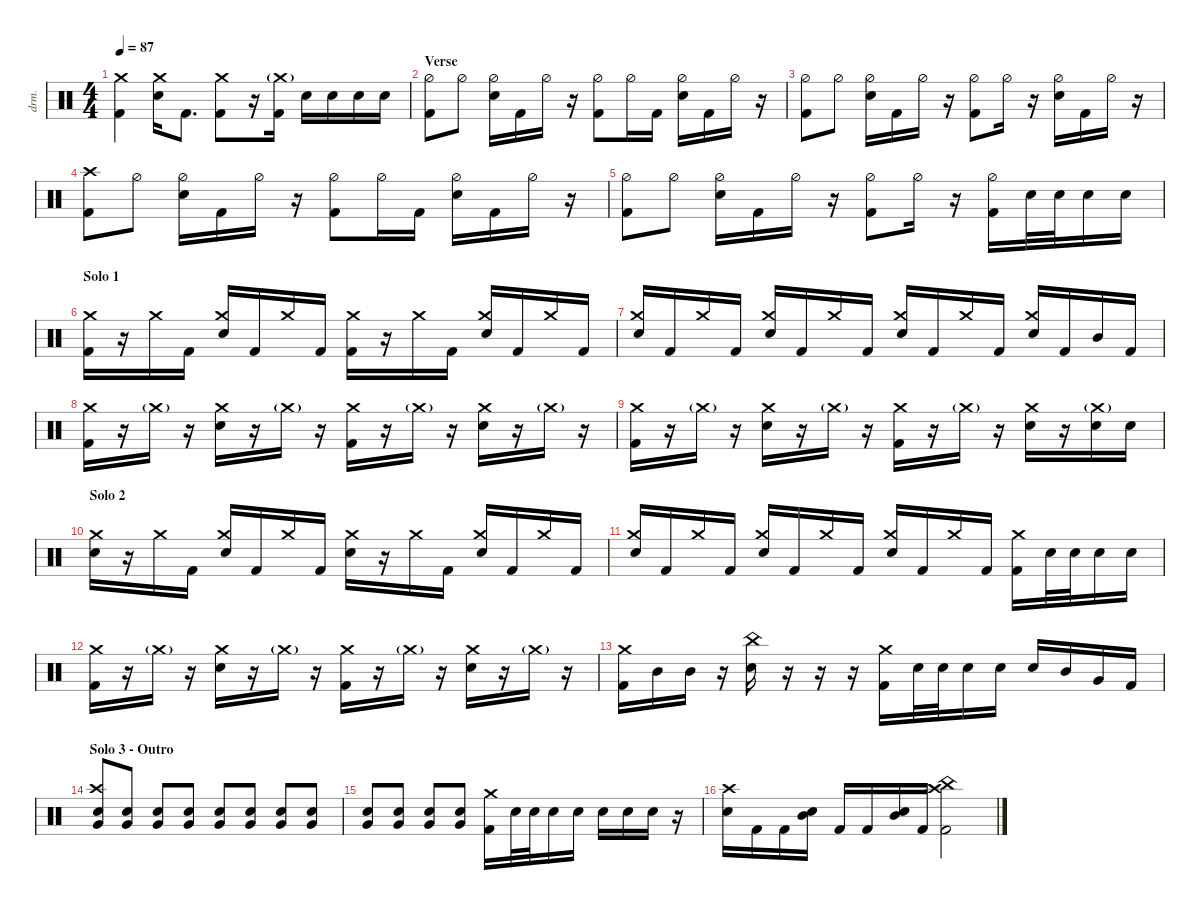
\defaultSystemsLayout 4
\hideDynamics
\bracketExtendMode nobrackets
\track ("Drums - Mario" "drm.") {instrument percussion}
\staff {score}
\articulation defaults
\ts (4 4)
\tempo 87
\clef neutral
\ks c
("Kick (hit) 2" "Crash medium (hit)").4{dy ff} ("Snare (hit) 2" "Crash medium (hit)").16 "Kick (hit) 2".8{d} ("Kick (hit) 2" "Crash medium (hit)").8 r.16 ("Kick (hit) 2" "Crash medium (hit)"{g}).16 "Snare (hit) 2".16 "Snare (hit) 2".16 "Snare (hit) 2".16 "Snare (hit) 2".16 |
\section ("" "Verse")
("Kick (hit) 2" "Hi-Hat (half)").8 "Hi-Hat (half)".8 ("Snare (hit) 2" "Hi-Hat (half)").16 "Kick (hit) 2".16 "Hi-Hat (half)".16 r.16 ("Kick (hit) 2" "Hi-Hat (half)").8 "Hi-Hat (half)".16 "Kick (hit) 2".16 ("Snare (hit) 2" "Hi-Hat (half)").16 "Kick (hit) 2".16 "Hi-Hat (half)".16 r.16 |
("Kick (hit) 2" "Hi-Hat (half)").8 "Hi-Hat (half)".8 ("Snare (hit) 2" "Hi-Hat (half)").16 "Kick (hit) 2".16 "Hi-Hat (half)".16 r.16 ("Kick (hit) 2" "Hi-Hat (half)").8 "Hi-Hat (half)".16 r.16 ("Snare (hit) 2" "Hi-Hat (half)").16 "Kick (hit) 2".16 "Hi-Hat (half)".16 r.16 |
("Kick (hit) 2" "Crash high (hit)").8 "Hi-Hat (half)".8 ("Snare (hit) 2" "Hi-Hat (half)").16 "Kick (hit) 2".16 "Hi-Hat (half)".16 r.16 ("Kick (hit) 2" "Hi-Hat (half)").8 "Hi-Hat (half)".16 "Kick (hit) 2".16 ("Snare (hit) 2" "Hi-Hat (half)").16 "Kick (hit) 2".16 "Hi-Hat (half)".16 r.16 |
("Kick (hit) 2" "Hi-Hat (half)").8{beam Down} "Hi-Hat (half)".8{beam Down} ("Snare (hit) 2" "Hi-Hat (half)").16{beam Down} "Kick (hit) 2".16{beam Down} "Hi-Hat (half)".16{beam Down} r.16{beam Down} ("Kick (hit) 2" "Hi-Hat (half)").8{beam Down} "Hi-Hat (half)".16{beam Down} r.16{beam Down} ("Hi-Hat (half)" "Kick (hit) 2").16{beam Down} "Snare (hit) 2".32{beam Down} "Snare (hit) 2".32{beam Down} "Snare (hit) 2".16{beam Down} "Snare (hit) 2".16{beam Down} |
\section ("" "Solo 1")
("Kick (hit) 2" "Crash medium (hit)").16{beam Down} r.16{beam Down} "Crash medium (hit)".16{beam Down} "Kick (hit) 2".16{beam Down} ("Crash medium (hit)" "Snare (hit) 2").16{beam Up} "Kick (hit) 2".16{beam Up} "Crash medium (hit)".16{beam Up} "Kick (hit) 2".16{beam Up} ("Kick (hit) 2" "Crash medium (hit)").16{beam Down} r.16{beam Down} "Crash medium (hit)".16{beam Down} "Kick (hit) 2".16{beam Down} ("Crash medium (hit)" "Snare (hit) 2").16{beam Up} "Kick (hit) 2".16{beam Up} "Crash medium (hit)".16{beam Up} "Kick (hit) 2".16{beam Up} |
("Crash medium (hit)" "Snare (hit) 2").16{beam Up} "Kick (hit) 2".16{beam Up} "Crash medium (hit)".16{beam Up} "Kick (hit) 2".16{beam Up} ("Crash medium (hit)" "Snare (hit) 2").16{beam Up} "Kick (hit) 2".16{beam Up} "Crash medium (hit)".16{beam Up} "Kick (hit) 2".16{beam Up} ("Crash medium (hit)" "Snare (hit) 2").16{beam Up} "Kick (hit) 2".16{beam Up} "Crash medium (hit)".16{beam Up} "Kick (hit) 2".16{beam Up} ("Crash medium (hit)" "Snare (hit) 2").16{beam Up} "Kick (hit) 2".16{beam Up} "Mid Tom (hit)".16{beam Up} "Kick (hit) 2".16{beam Up} |
("Kick (hit) 2" "Crash medium (hit)").16{beam Down} r.16{beam Down} "Crash medium (hit)"{g}.16{beam Down} r.16{beam Down} ("Crash medium (hit)" "Snare (hit) 2").16{beam Down} r.16{beam Down} "Crash medium (hit)"{g}.16{beam Down} r.16{beam Down} ("Kick (hit) 2" "Crash medium (hit)").16{beam Down} r.16{beam Down} "Crash medium (hit)"{g}.16{beam Down} r.16{beam Down} ("Crash medium (hit)" "Snare (hit) 2").16{beam Down} r.16{beam Down} "Crash medium (hit)"{g}.16{beam Down} r.16{beam Down} |
("Kick (hit) 2" "Crash medium (hit)").16{beam Down} r.16{beam Down} "Crash medium (hit)"{g}.16{beam Down} r.16{beam Down} ("Crash medium (hit)" "Snare (hit) 2").16{beam Down} r.16{beam Down} "Crash medium (hit)"{g}.16{beam Down} r.16{beam Down} ("Kick (hit) 2" "Crash medium (hit)").16{beam Down} r.16{beam Down} "Crash medium (hit)"{g}.16{beam Down} r.16{beam Down} ("Crash medium (hit)" "Snare (hit) 2").16{beam Down} r.16{beam Down} ("Crash medium (hit)"{g} "Snare (hit) 2").16{beam Down} "Snare (hit) 2".16{beam Down} |
\section ("" "Solo 2")
("Crash medium (hit)" "Snare (hit) 2").16{beam Down} r.16{beam Down} "Crash medium (hit)".16{beam Down} "Kick (hit) 2".16{beam Down} ("Crash medium (hit)" "Snare (hit) 2").16{beam Up} "Kick (hit) 2".16{beam Up} "Crash medium (hit)".16{beam Up} "Kick (hit) 2".16{beam Up} ("Crash medium (hit)" "Snare (hit) 2").16{beam Down} r.16{beam Down} "Crash medium (hit)".16{beam Down} "Kick (hit) 2".16{beam Down} ("Crash medium (hit)" "Snare (hit) 2").16{beam Up} "Kick (hit) 2".16{beam Up} "Crash medium (hit)".16{beam Up} "Kick (hit) 2".16{beam Up} |
("Crash medium (hit)" "Snare (hit) 2").16{beam Up} "Kick (hit) 2".16{beam Up} "Crash medium (hit)".16{beam Up} "Kick (hit) 2".16{beam Up} ("Crash medium (hit)" "Snare (hit) 2").16{beam Up} "Kick (hit) 2".16{beam Up} "Crash medium (hit)".16{beam Up} "Kick (hit) 2".16{beam Up} ("Crash medium (hit)" "Snare (hit) 2").16{beam Up} "Kick (hit) 2".16{beam Up} "Crash medium (hit)".16{beam Up} "Kick (hit) 2".16{beam Up} ("Crash medium (hit)" "Kick (hit) 2").16{beam Down} "Snare (hit) 2".32{beam Down} "Snare (hit) 2".32{beam Down} "Snare (hit) 2".16{beam Down} "Snare (hit) 2".16{beam Down} |
("Kick (hit) 2" "Crash medium (hit)").16{beam Down} r.16{beam Down} "Crash medium (hit)"{g}.16{beam Down} r.16{beam Down} ("Crash medium (hit)" "Snare (hit) 2").16{beam Down} r.16{beam Down} "Crash medium (hit)"{g}.16{beam Down} r.16{beam Down} ("Kick (hit) 2" "Crash medium (hit)").16{beam Down} r.16{beam Down} "Crash medium (hit)"{g}.16{beam Down} r.16{beam Down} ("Crash medium (hit)" "Snare (hit) 2").16{beam Down} r.16{beam Down} "Crash medium (hit)"{g}.16{beam Down} r.16{beam Down} |
("Kick (hit) 2" "Crash medium (hit)").16{beam Down} "Mid Tom (hit)".16{beam Down} "Mid Tom (hit)".16{beam Down} r.16{beam Down} ("Snare (hit) 2" "China (hit)").16{beam Down} r.16{beam Down} r.16{beam Down} r.16{beam Down} ("Crash medium (hit)" "Kick (hit) 2").16{beam Down} "Snare (hit) 2".32{beam Down} "Snare (hit) 2".32{beam Down} "Snare (hit) 2".16{beam Down} "Snare (hit) 2".16{beam Down} "Snare (hit) 2".16{beam Up} "Mid Tom (hit)".16{beam Up} "Very Low Tom (hit)".16{beam Up} "Kick (hit) 2".16{beam Up} |
\section ("" "Solo 3 - Outro")
("Very Low Tom (hit)" "Snare (hit) 2" "Crash high (hit)").8{beam Up} ("Very Low Tom (hit)" "Snare (hit) 2").8{beam Up} ("Very Low Tom (hit)" "Snare (hit) 2").8{beam Up} ("Very Low Tom (hit)" "Snare (hit) 2").8{beam Up} ("Very Low Tom (hit)" "Snare (hit) 2").8{beam Up} ("Very Low Tom (hit)" "Snare (hit) 2").8{beam Up} ("Very Low Tom (hit)" "Snare (hit) 2").8{beam Up} ("Very Low Tom (hit)" "Snare (hit) 2").8{beam Up} |
("Very Low Tom (hit)" "Snare (hit) 2").8{beam Up} ("Very Low Tom (hit)" "Snare (hit) 2").8{beam Up} ("Very Low Tom (hit)" "Snare (hit) 2").8{beam Up} ("Very Low Tom (hit)" "Snare (hit) 2").8{beam Up} ("Crash medium (hit)" "Kick (hit) 2").16{beam Down} "Snare (hit) 2".32{beam Down} "Snare (hit) 2".32{beam Down} "Snare (hit) 2".16{beam Down} "Snare (hit) 2".16{beam Down} "Snare (hit) 2".16{beam Down} "Snare (hit) 2".16{beam Down} "Snare (hit) 2".16{beam Down} r.16{beam Down} |
("Snare (hit) 2" "Crash high (hit)").16{beam Down} "Kick (hit) 2".16{beam Down} "Kick (hit) 2".16{beam Down} ("Snare (hit) 2" "Mid Tom (hit)").16{beam Down} "Kick (hit) 2".16{beam Up} "Kick (hit) 2".16{beam Up} ("Snare (hit) 2" "Mid Tom (hit)").16{beam Up} "Kick (hit) 2".16{beam Up} ("Kick (hit) 2" "Crash high (hit)" "China (hit)").2{beam Down}
